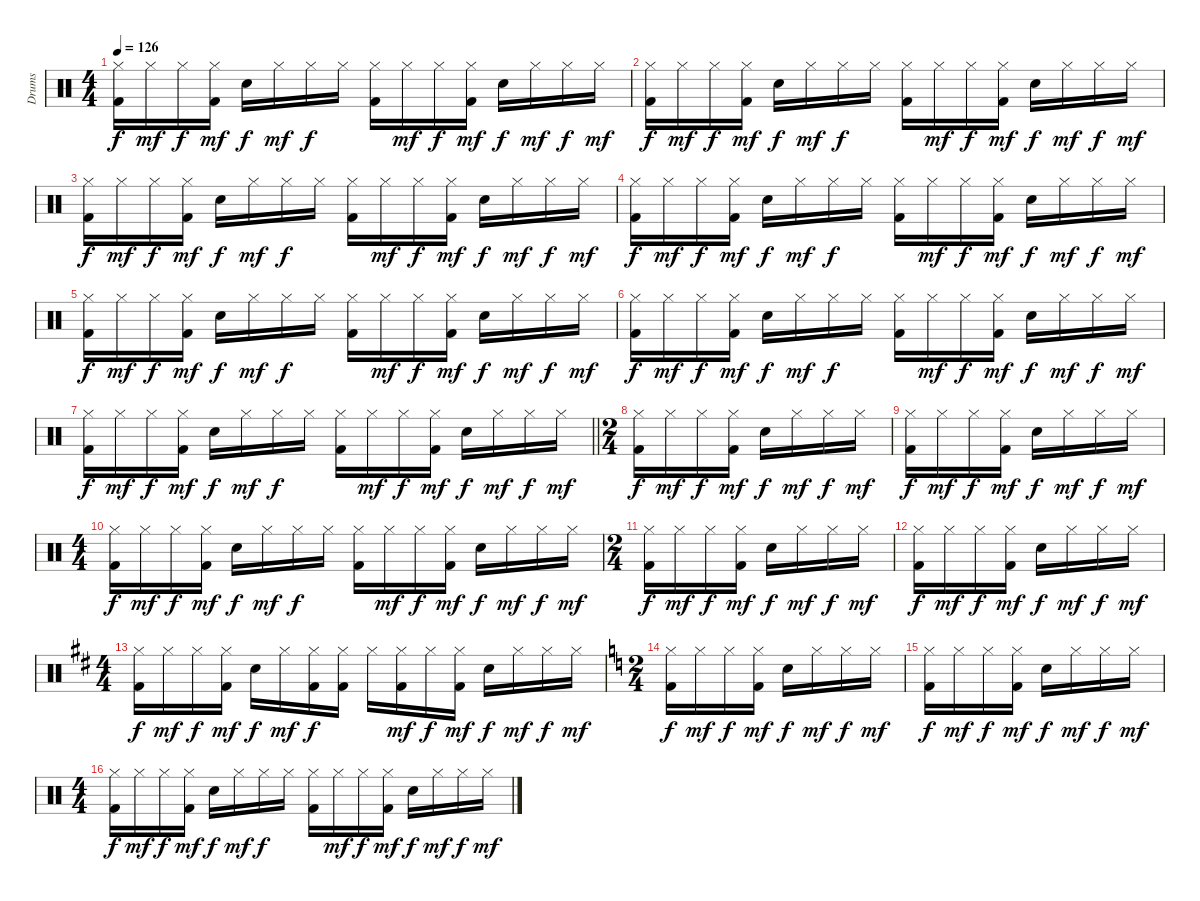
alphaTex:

\track ("Drums" "Drums") {instrument percussion}
\staff {score}
\articulation defaults
\ts (4 4)
\tempo 126
\clef neutral
\ks c
("Hi-Hat (closed)" "Kick (hit) 2").16{dy f} "Hi-Hat (closed)".16{dy mf} "Hi-Hat (closed)".16{dy f} ("Hi-Hat (closed)" "Kick (hit) 2").16{dy mf} "Snare (hit) 2".16{dy f} "Hi-Hat (closed)".16{dy mf} "Hi-Hat (closed)".16{dy f} "Hi-Hat (closed)".16 ("Hi-Hat (closed)" "Kick (hit) 2").16 "Hi-Hat (closed)".16{dy mf} "Hi-Hat (closed)".16{dy f} ("Hi-Hat (closed)" "Kick (hit) 2").16{dy mf} "Snare (hit) 2".16{dy f} "Hi-Hat (closed)".16{dy mf} "Hi-Hat (closed)".16{dy f} "Hi-Hat (closed)".16{dy mf} |
("Hi-Hat (closed)" "Kick (hit) 2").16{dy f} "Hi-Hat (closed)".16{dy mf} "Hi-Hat (closed)".16{dy f} ("Hi-Hat (closed)" "Kick (hit) 2").16{dy mf} "Snare (hit) 2".16{dy f} "Hi-Hat (closed)".16{dy mf} "Hi-Hat (closed)".16{dy f} "Hi-Hat (closed)".16 ("Hi-Hat (closed)" "Kick (hit) 2").16 "Hi-Hat (closed)".16{dy mf} "Hi-Hat (closed)".16{dy f} ("Hi-Hat (closed)" "Kick (hit) 2").16{dy mf} "Snare (hit) 2".16{dy f} "Hi-Hat (closed)".16{dy mf} "Hi-Hat (closed)".16{dy f} "Hi-Hat (closed)".16{dy mf} |
("Hi-Hat (closed)" "Kick (hit) 2").16{dy f} "Hi-Hat (closed)".16{dy mf} "Hi-Hat (closed)".16{dy f} ("Hi-Hat (closed)" "Kick (hit) 2").16{dy mf} "Snare (hit) 2".16{dy f} "Hi-Hat (closed)".16{dy mf} "Hi-Hat (closed)".16{dy f} "Hi-Hat (closed)".16 ("Hi-Hat (closed)" "Kick (hit) 2").16 "Hi-Hat (closed)".16{dy mf} "Hi-Hat (closed)".16{dy f} ("Hi-Hat (closed)" "Kick (hit) 2").16{dy mf} "Snare (hit) 2".16{dy f} "Hi-Hat (closed)".16{dy mf} "Hi-Hat (closed)".16{dy f} "Hi-Hat (closed)".16{dy mf} |
("Hi-Hat (closed)" "Kick (hit) 2").16{dy f} "Hi-Hat (closed)".16{dy mf} "Hi-Hat (closed)".16{dy f} ("Hi-Hat (closed)" "Kick (hit) 2").16{dy mf} "Snare (hit) 2".16{dy f} "Hi-Hat (closed)".16{dy mf} "Hi-Hat (closed)".16{dy f} "Hi-Hat (closed)".16 ("Hi-Hat (closed)" "Kick (hit) 2").16 "Hi-Hat (closed)".16{dy mf} "Hi-Hat (closed)".16{dy f} ("Hi-Hat (closed)" "Kick (hit) 2").16{dy mf} "Snare (hit) 2".16{dy f} "Hi-Hat (closed)".16{dy mf} "Hi-Hat (closed)".16{dy f} "Hi-Hat (closed)".16{dy mf} |
("Hi-Hat (closed)" "Kick (hit) 2").16{dy f} "Hi-Hat (closed)".16{dy mf} "Hi-Hat (closed)".16{dy f} ("Hi-Hat (closed)" "Kick (hit) 2").16{dy mf} "Snare (hit) 2".16{dy f} "Hi-Hat (closed)".16{dy mf} "Hi-Hat (closed)".16{dy f} "Hi-Hat (closed)".16 ("Hi-Hat (closed)" "Kick (hit) 2").16 "Hi-Hat (closed)".16{dy mf} "Hi-Hat (closed)".16{dy f} ("Hi-Hat (closed)" "Kick (hit) 2").16{dy mf} "Snare (hit) 2".16{dy f} "Hi-Hat (closed)".16{dy mf} "Hi-Hat (closed)".16{dy f} "Hi-Hat (closed)".16{dy mf} |
("Hi-Hat (closed)" "Kick (hit) 2").16{dy f} "Hi-Hat (closed)".16{dy mf} "Hi-Hat (closed)".16{dy f} ("Hi-Hat (closed)" "Kick (hit) 2").16{dy mf} "Snare (hit) 2".16{dy f} "Hi-Hat (closed)".16{dy mf} "Hi-Hat (closed)".16{dy f} "Hi-Hat (closed)".16 ("Hi-Hat (closed)" "Kick (hit) 2").16 "Hi-Hat (closed)".16{dy mf} "Hi-Hat (closed)".16{dy f} ("Hi-Hat (closed)" "Kick (hit) 2").16{dy mf} "Snare (hit) 2".16{dy f} "Hi-Hat (closed)".16{dy mf} "Hi-Hat (closed)".16{dy f} "Hi-Hat (closed)".16{dy mf} |
\barLineRight lightlight
("Hi-Hat (closed)" "Kick (hit) 2").16{dy f} "Hi-Hat (closed)".16{dy mf} "Hi-Hat (closed)".16{dy f} ("Hi-Hat (closed)" "Kick (hit) 2").16{dy mf} "Snare (hit) 2".16{dy f} "Hi-Hat (closed)".16{dy mf} "Hi-Hat (closed)".16{dy f} "Hi-Hat (closed)".16 ("Hi-Hat (closed)" "Kick (hit) 2").16 "Hi-Hat (closed)".16{dy mf} "Hi-Hat (closed)".16{dy f} ("Hi-Hat (closed)" "Kick (hit) 2").16{dy mf} "Snare (hit) 2".16{dy f} "Hi-Hat (closed)".16{dy mf} "Hi-Hat (closed)".16{dy f} "Hi-Hat (closed)".16{dy mf} |
\ts (2 4)
("Hi-Hat (closed)" "Kick (hit) 2").16{dy f} "Hi-Hat (closed)".16{dy mf} "Hi-Hat (closed)".16{dy f} ("Hi-Hat (closed)" "Kick (hit) 2").16{dy mf} "Snare (hit) 2".16{dy f} "Hi-Hat (closed)".16{dy mf} "Hi-Hat (closed)".16{dy f} "Hi-Hat (closed)".16{dy mf} |
("Hi-Hat (closed)" "Kick (hit) 2").16{dy f} "Hi-Hat (closed)".16{dy mf} "Hi-Hat (closed)".16{dy f} ("Hi-Hat (closed)" "Kick (hit) 2").16{dy mf} "Snare (hit) 2".16{dy f} "Hi-Hat (closed)".16{dy mf} "Hi-Hat (closed)".16{dy f} "Hi-Hat (closed)".16{dy mf} |
\ts (4 4)
("Hi-Hat (closed)" "Kick (hit) 2").16{dy f} "Hi-Hat (closed)".16{dy mf} "Hi-Hat (closed)".16{dy f} ("Hi-Hat (closed)" "Kick (hit) 2").16{dy mf} "Snare (hit) 2".16{dy f} "Hi-Hat (closed)".16{dy mf} "Hi-Hat (closed)".16{dy f} "Hi-Hat (closed)".16 ("Hi-Hat (closed)" "Kick (hit) 2").16 "Hi-Hat (closed)".16{dy mf} "Hi-Hat (closed)".16{dy f} ("Hi-Hat (closed)" "Kick (hit) 2").16{dy mf} "Snare (hit) 2".16{dy f} "Hi-Hat (closed)".16{dy mf} "Hi-Hat (closed)".16{dy f} "Hi-Hat (closed)".16{dy mf} |
\ts (2 4)
("Hi-Hat (closed)" "Kick (hit) 2").16{dy f} "Hi-Hat (closed)".16{dy mf} "Hi-Hat (closed)".16{dy f} ("Hi-Hat (closed)" "Kick (hit) 2").16{dy mf} "Snare (hit) 2".16{dy f} "Hi-Hat (closed)".16{dy mf} "Hi-Hat (closed)".16{dy f} "Hi-Hat (closed)".16{dy mf} |
("Hi-Hat (closed)" "Kick (hit) 2").16{dy f} "Hi-Hat (closed)".16{dy mf} "Hi-Hat (closed)".16{dy f} ("Hi-Hat (closed)" "Kick (hit) 2").16{dy mf} "Snare (hit) 2".16{dy f} "Hi-Hat (closed)".16{dy mf} "Hi-Hat (closed)".16{dy f} "Hi-Hat (closed)".16{dy mf} |
\ts (4 4)
\ks d
("Hi-Hat (closed)" "Kick (hit) 2").16{dy f} "Hi-Hat (closed)".16{dy mf} "Hi-Hat (closed)".16{dy f} ("Hi-Hat (closed)" "Kick (hit) 2").16{dy mf} "Snare (hit) 2".16{dy f} "Hi-Hat (closed)".16{dy mf} ("Hi-Hat (closed)" "Kick (hit) 2").16{dy f} ("Hi-Hat (closed)" "Kick (hit) 2").16 "Hi-Hat (closed)".16 ("Hi-Hat (closed)" "Kick (hit) 2").16{dy mf} "Hi-Hat (closed)".16{dy f} ("Hi-Hat (closed)" "Kick (hit) 2").16{dy mf} "Snare (hit) 2".16{dy f} "Hi-Hat (closed)".16{dy mf} "Hi-Hat (closed)".16{dy f} "Hi-Hat (closed)".16{dy mf} |
\ts (2 4)
\ks c
("Hi-Hat (closed)" "Kick (hit) 2").16{dy f} "Hi-Hat (closed)".16{dy mf} "Hi-Hat (closed)".16{dy f} ("Hi-Hat (closed)" "Kick (hit) 2").16{dy mf} "Snare (hit) 2".16{dy f} "Hi-Hat (closed)".16{dy mf} "Hi-Hat (closed)".16{dy f} "Hi-Hat (closed)".16{dy mf} |
("Hi-Hat (closed)" "Kick (hit) 2").16{dy f} "Hi-Hat (closed)".16{dy mf} "Hi-Hat (closed)".16{dy f} ("Hi-Hat (closed)" "Kick (hit) 2").16{dy mf} "Snare (hit) 2".16{dy f} "Hi-Hat (closed)".16{dy mf} "Hi-Hat (closed)".16{dy f} "Hi-Hat (closed)".16{dy mf} |
\ts (4 4)
("Hi-Hat (closed)" "Kick (hit) 2").16{dy f} "Hi-Hat (closed)".16{dy mf} "Hi-Hat (closed)".16{dy f} ("Hi-Hat (closed)" "Kick (hit) 2").16{dy mf} "Snare (hit) 2".16{dy f} "Hi-Hat (closed)".16{dy mf} "Hi-Hat (closed)".16{dy f} "Hi-Hat (closed)".16 ("Hi-Hat (closed)" "Kick (hit) 2").16 "Hi-Hat (closed)".16{dy mf} "Hi-Hat (closed)".16{dy f} ("Hi-Hat (closed)" "Kick (hit) 2").16{dy mf} "Snare (hit) 2".16{dy f} "Hi-Hat (closed)".16{dy mf} "Hi-Hat (closed)".16{dy f} "Hi-Hat (closed)".16{dy mf}
